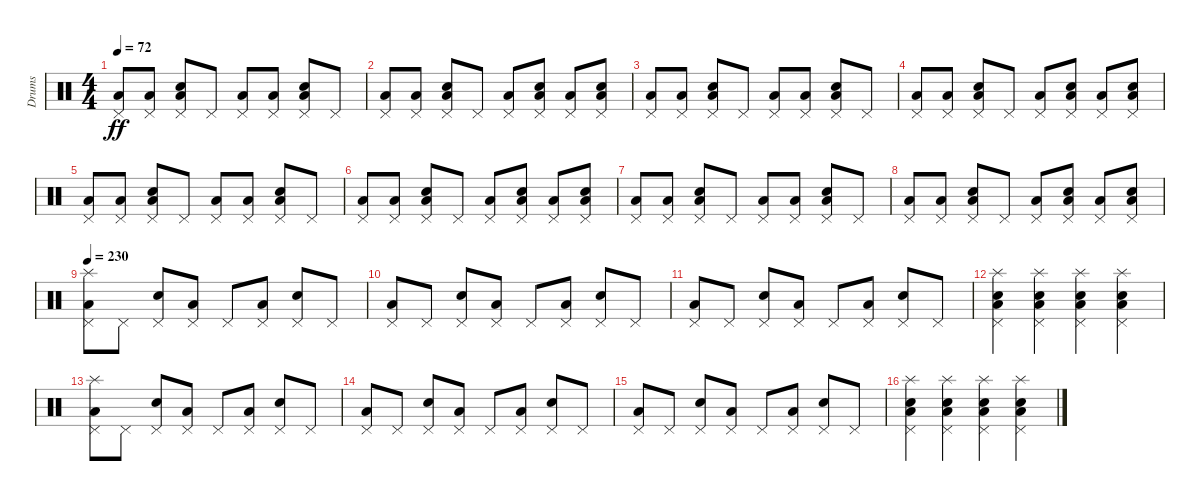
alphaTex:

\track ("Drums" "Drums") {instrument percussion}
\staff {score}
\articulation defaults
\ts (4 4)
\tempo 72
\clef neutral
\ks c
("Low Floor Tom (hit)" "Pedal Hi-Hat (hit)").8{dy ff} ("Low Floor Tom (hit)" "Pedal Hi-Hat (hit)").8 ("Electric Snare (hit)" "Low Floor Tom (hit)" "Pedal Hi-Hat (hit)").8 "Pedal Hi-Hat (hit)".8 ("Low Floor Tom (hit)" "Pedal Hi-Hat (hit)").8 ("Low Floor Tom (hit)" "Pedal Hi-Hat (hit)").8 ("Electric Snare (hit)" "Low Floor Tom (hit)" "Pedal Hi-Hat (hit)").8 "Pedal Hi-Hat (hit)".8 |
("Low Floor Tom (hit)" "Pedal Hi-Hat (hit)").8 ("Low Floor Tom (hit)" "Pedal Hi-Hat (hit)").8 ("Electric Snare (hit)" "Low Floor Tom (hit)" "Pedal Hi-Hat (hit)").8 "Pedal Hi-Hat (hit)".8 ("Low Floor Tom (hit)" "Pedal Hi-Hat (hit)").8 ("Electric Snare (hit)" "Low Floor Tom (hit)" "Pedal Hi-Hat (hit)").8 ("Low Floor Tom (hit)" "Pedal Hi-Hat (hit)").8 ("Electric Snare (hit)" "Low Floor Tom (hit)" "Pedal Hi-Hat (hit)").8 |
("Low Floor Tom (hit)" "Pedal Hi-Hat (hit)").8 ("Low Floor Tom (hit)" "Pedal Hi-Hat (hit)").8 ("Electric Snare (hit)" "Low Floor Tom (hit)" "Pedal Hi-Hat (hit)").8 "Pedal Hi-Hat (hit)".8 ("Low Floor Tom (hit)" "Pedal Hi-Hat (hit)").8 ("Low Floor Tom (hit)" "Pedal Hi-Hat (hit)").8 ("Electric Snare (hit)" "Low Floor Tom (hit)" "Pedal Hi-Hat (hit)").8 "Pedal Hi-Hat (hit)".8 |
("Low Floor Tom (hit)" "Pedal Hi-Hat (hit)").8 ("Low Floor Tom (hit)" "Pedal Hi-Hat (hit)").8 ("Electric Snare (hit)" "Low Floor Tom (hit)" "Pedal Hi-Hat (hit)").8 "Pedal Hi-Hat (hit)".8 ("Low Floor Tom (hit)" "Pedal Hi-Hat (hit)").8 ("Electric Snare (hit)" "Low Floor Tom (hit)" "Pedal Hi-Hat (hit)").8 ("Low Floor Tom (hit)" "Pedal Hi-Hat (hit)").8 ("Electric Snare (hit)" "Low Floor Tom (hit)" "Pedal Hi-Hat (hit)").8 |
("Low Floor Tom (hit)" "Pedal Hi-Hat (hit)").8 ("Low Floor Tom (hit)" "Pedal Hi-Hat (hit)").8 ("Electric Snare (hit)" "Low Floor Tom (hit)" "Pedal Hi-Hat (hit)").8 "Pedal Hi-Hat (hit)".8 ("Low Floor Tom (hit)" "Pedal Hi-Hat (hit)").8 ("Low Floor Tom (hit)" "Pedal Hi-Hat (hit)").8 ("Electric Snare (hit)" "Low Floor Tom (hit)" "Pedal Hi-Hat (hit)").8 "Pedal Hi-Hat (hit)".8 |
("Low Floor Tom (hit)" "Pedal Hi-Hat (hit)").8 ("Low Floor Tom (hit)" "Pedal Hi-Hat (hit)").8 ("Electric Snare (hit)" "Low Floor Tom (hit)" "Pedal Hi-Hat (hit)").8 "Pedal Hi-Hat (hit)".8 ("Low Floor Tom (hit)" "Pedal Hi-Hat (hit)").8 ("Electric Snare (hit)" "Low Floor Tom (hit)" "Pedal Hi-Hat (hit)").8 ("Low Floor Tom (hit)" "Pedal Hi-Hat (hit)").8 ("Electric Snare (hit)" "Low Floor Tom (hit)" "Pedal Hi-Hat (hit)").8 |
("Low Floor Tom (hit)" "Pedal Hi-Hat (hit)").8 ("Low Floor Tom (hit)" "Pedal Hi-Hat (hit)").8 ("Electric Snare (hit)" "Low Floor Tom (hit)" "Pedal Hi-Hat (hit)").8 "Pedal Hi-Hat (hit)".8 ("Low Floor Tom (hit)" "Pedal Hi-Hat (hit)").8 ("Low Floor Tom (hit)" "Pedal Hi-Hat (hit)").8 ("Electric Snare (hit)" "Low Floor Tom (hit)" "Pedal Hi-Hat (hit)").8 "Pedal Hi-Hat (hit)".8 |
("Low Floor Tom (hit)" "Pedal Hi-Hat (hit)").8 ("Low Floor Tom (hit)" "Pedal Hi-Hat (hit)").8 ("Electric Snare (hit)" "Low Floor Tom (hit)" "Pedal Hi-Hat (hit)").8 "Pedal Hi-Hat (hit)".8 ("Low Floor Tom (hit)" "Pedal Hi-Hat (hit)").8 ("Electric Snare (hit)" "Low Floor Tom (hit)" "Pedal Hi-Hat (hit)").8 ("Low Floor Tom (hit)" "Pedal Hi-Hat (hit)").8 ("Electric Snare (hit)" "Low Floor Tom (hit)" "Pedal Hi-Hat (hit)").8 |
\tempo 230
("Low Floor Tom (hit)" "Pedal Hi-Hat (hit)" "Splash (hit)").8 "Pedal Hi-Hat (hit)".8 ("Electric Snare (hit)" "Pedal Hi-Hat (hit)").8 ("Low Floor Tom (hit)" "Pedal Hi-Hat (hit)").8 "Pedal Hi-Hat (hit)".8 ("Low Floor Tom (hit)" "Pedal Hi-Hat (hit)").8 ("Electric Snare (hit)" "Pedal Hi-Hat (hit)").8 "Pedal Hi-Hat (hit)".8 |
("Low Floor Tom (hit)" "Pedal Hi-Hat (hit)").8 "Pedal Hi-Hat (hit)".8 ("Electric Snare (hit)" "Pedal Hi-Hat (hit)").8 ("Low Floor Tom (hit)" "Pedal Hi-Hat (hit)").8 "Pedal Hi-Hat (hit)".8 ("Low Floor Tom (hit)" "Pedal Hi-Hat (hit)").8 ("Electric Snare (hit)" "Pedal Hi-Hat (hit)").8 "Pedal Hi-Hat (hit)".8 |
("Low Floor Tom (hit)" "Pedal Hi-Hat (hit)").8 "Pedal Hi-Hat (hit)".8 ("Electric Snare (hit)" "Pedal Hi-Hat (hit)").8 ("Low Floor Tom (hit)" "Pedal Hi-Hat (hit)").8 "Pedal Hi-Hat (hit)".8 ("Low Floor Tom (hit)" "Pedal Hi-Hat (hit)").8 ("Electric Snare (hit)" "Pedal Hi-Hat (hit)").8 "Pedal Hi-Hat (hit)".8 |
("Electric Snare (hit)" "Low Floor Tom (hit)" "Pedal Hi-Hat (hit)" "Splash (hit)").4 ("Electric Snare (hit)" "Low Floor Tom (hit)" "Pedal Hi-Hat (hit)" "Splash (hit)").4 ("Electric Snare (hit)" "Low Floor Tom (hit)" "Pedal Hi-Hat (hit)" "Splash (hit)").4 ("Electric Snare (hit)" "Low Floor Tom (hit)" "Pedal Hi-Hat (hit)" "Splash (hit)").4 |
("Low Floor Tom (hit)" "Pedal Hi-Hat (hit)" "Splash (hit)").8 "Pedal Hi-Hat (hit)".8 ("Electric Snare (hit)" "Pedal Hi-Hat (hit)").8 ("Low Floor Tom (hit)" "Pedal Hi-Hat (hit)").8 "Pedal Hi-Hat (hit)".8 ("Low Floor Tom (hit)" "Pedal Hi-Hat (hit)").8 ("Electric Snare (hit)" "Pedal Hi-Hat (hit)").8 "Pedal Hi-Hat (hit)".8 |
("Low Floor Tom (hit)" "Pedal Hi-Hat (hit)").8 "Pedal Hi-Hat (hit)".8 ("Electric Snare (hit)" "Pedal Hi-Hat (hit)").8 ("Low Floor Tom (hit)" "Pedal Hi-Hat (hit)").8 "Pedal Hi-Hat (hit)".8 ("Low Floor Tom (hit)" "Pedal Hi-Hat (hit)").8 ("Electric Snare (hit)" "Pedal Hi-Hat (hit)").8 "Pedal Hi-Hat (hit)".8 |
("Low Floor Tom (hit)" "Pedal Hi-Hat (hit)").8 "Pedal Hi-Hat (hit)".8 ("Electric Snare (hit)" "Pedal Hi-Hat (hit)").8 ("Low Floor Tom (hit)" "Pedal Hi-Hat (hit)").8 "Pedal Hi-Hat (hit)".8 ("Low Floor Tom (hit)" "Pedal Hi-Hat (hit)").8 ("Electric Snare (hit)" "Pedal Hi-Hat (hit)").8 "Pedal Hi-Hat (hit)".8 |
("Electric Snare (hit)" "Low Floor Tom (hit)" "Pedal Hi-Hat (hit)" "Splash (hit)").4 ("Electric Snare (hit)" "Low Floor Tom (hit)" "Pedal Hi-Hat (hit)" "Splash (hit)").4 ("Electric Snare (hit)" "Low Floor Tom (hit)" "Pedal Hi-Hat (hit)" "Splash (hit)").4 ("Electric Snare (hit)" "Low Floor Tom (hit)" "Pedal Hi-Hat (hit)" "Splash (hit)").4
